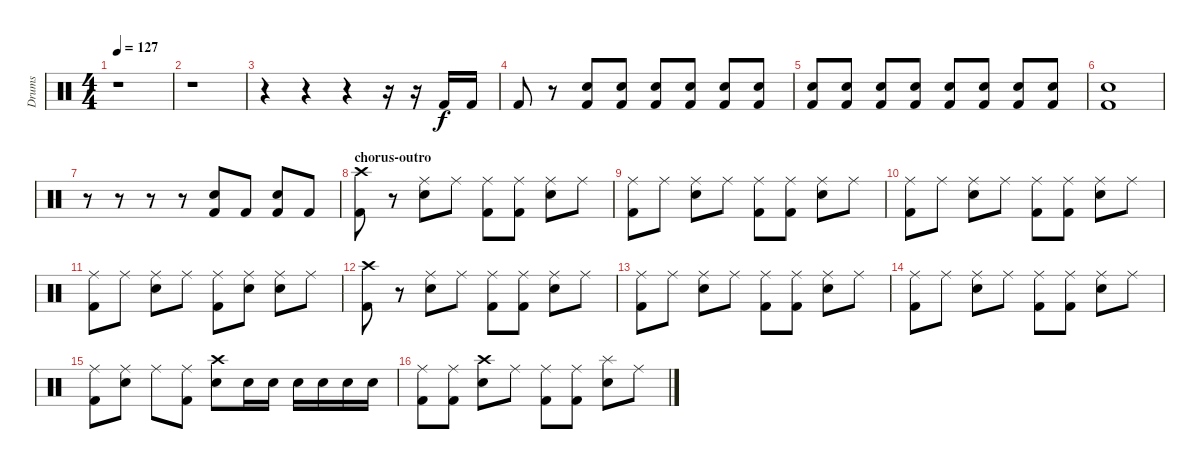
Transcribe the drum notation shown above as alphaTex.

\track ("Drums" "Drums") {instrument percussion}
\staff {score}
\articulation defaults
\ts (4 4)
\tempo 127
\clef neutral
\ks c
r.1{dy f} |
r.1 |
r.4 r.4 r.4 r.16 r.16 "Kick (hit) 2".16 "Kick (hit) 2".16 |
"Kick (hit) 2".8 r.8 ("Snare (hit) 2" "Kick (hit) 2").8{volume 8} ("Snare (hit) 2" "Kick (hit) 2").8 ("Snare (hit) 2" "Kick (hit) 2").8{volume 10} ("Snare (hit) 2" "Kick (hit) 2").8 ("Snare (hit) 2" "Kick (hit) 2").8{volume 12} ("Snare (hit) 2" "Kick (hit) 2").8 |
("Snare (hit) 2" "Kick (hit) 2").8{volume 14} ("Snare (hit) 2" "Kick (hit) 2").8 ("Snare (hit) 2" "Kick (hit) 2").8{volume 16} ("Snare (hit) 2" "Kick (hit) 2").8 ("Snare (hit) 2" "Kick (hit) 2").8 ("Snare (hit) 2" "Kick (hit) 2").8 ("Snare (hit) 2" "Kick (hit) 2").8 ("Snare (hit) 2" "Kick (hit) 2").8 |
("Snare (hit) 2" "Kick (hit) 2").1 |
r.8 r.8 r.8 r.8 ("Snare (hit) 2" "Kick (hit) 2").8 "Kick (hit) 2".8 ("Snare (hit) 2" "Kick (hit) 2").8 "Kick (hit) 2".8 |
\section ("" "chorus-outro")
("Crash high (hit)" "Kick (hit) 2").8 r.8 ("Ride (middle)" "Snare (hit) 2").8 "Ride (middle)".8 ("Ride (middle)" "Kick (hit) 2").8 ("Ride (middle)" "Kick (hit) 2").8 ("Ride (middle)" "Snare (hit) 2").8 "Ride (middle)".8 |
("Ride (middle)" "Kick (hit) 2").8 "Ride (middle)".8 ("Ride (middle)" "Snare (hit) 2").8 "Ride (middle)".8 ("Ride (middle)" "Kick (hit) 2").8 ("Ride (middle)" "Kick (hit) 2").8 ("Ride (middle)" "Snare (hit) 2").8 "Ride (middle)".8 |
("Ride (middle)" "Kick (hit) 2").8 "Ride (middle)".8 ("Ride (middle)" "Snare (hit) 2").8 "Ride (middle)".8 ("Ride (middle)" "Kick (hit) 2").8 ("Ride (middle)" "Kick (hit) 2").8 ("Ride (middle)" "Snare (hit) 2").8 "Ride (middle)".8 |
("Ride (middle)" "Kick (hit) 2").8 "Ride (middle)".8 ("Ride (middle)" "Snare (hit) 2").8 "Ride (middle)".8 ("Ride (middle)" "Kick (hit) 2").8 ("Ride (middle)" "Snare (hit) 2").8 ("Ride (middle)" "Snare (hit) 2").8 "Ride (middle)".8 |
("Crash high (hit)" "Kick (hit) 2").8 r.8 ("Ride (middle)" "Snare (hit) 2").8 "Ride (middle)".8 ("Ride (middle)" "Kick (hit) 2").8 ("Ride (middle)" "Kick (hit) 2").8 ("Ride (middle)" "Snare (hit) 2").8 "Ride (middle)".8 |
("Ride (middle)" "Kick (hit) 2").8 "Ride (middle)".8 ("Ride (middle)" "Snare (hit) 2").8 "Ride (middle)".8 ("Ride (middle)" "Kick (hit) 2").8 ("Ride (middle)" "Kick (hit) 2").8 ("Ride (middle)" "Snare (hit) 2").8 "Ride (middle)".8 |
("Ride (middle)" "Kick (hit) 2").8 "Ride (middle)".8 ("Ride (middle)" "Snare (hit) 2").8 "Ride (middle)".8 ("Ride (middle)" "Kick (hit) 2").8 ("Ride (middle)" "Kick (hit) 2").8 ("Ride (middle)" "Snare (hit) 2").8 "Ride (middle)".8 |
("Ride (middle)" "Kick (hit) 2").8 ("Ride (middle)" "Snare (hit) 2").8 "Ride (middle)".8 ("Ride (middle)" "Kick (hit) 2").8 ("Crash high (hit)" "Snare (hit) 2").8 "Snare (hit) 2".16 "Snare (hit) 2".16 "Snare (hit) 2".16 "Snare (hit) 2".16 "Snare (hit) 2".16 "Snare (hit) 2".16 |
("Ride (middle)" "Kick (hit) 2").8 ("Ride (middle)" "Kick (hit) 2").8 ("Crash high (hit)" "Snare (hit) 2").8 "Ride (middle)".8 ("Ride (middle)" "Kick (hit) 2").8 ("Ride (middle)" "Kick (hit) 2").8 ("Splash (hit)" "Snare (hit) 2").8 "Ride (middle)".8
